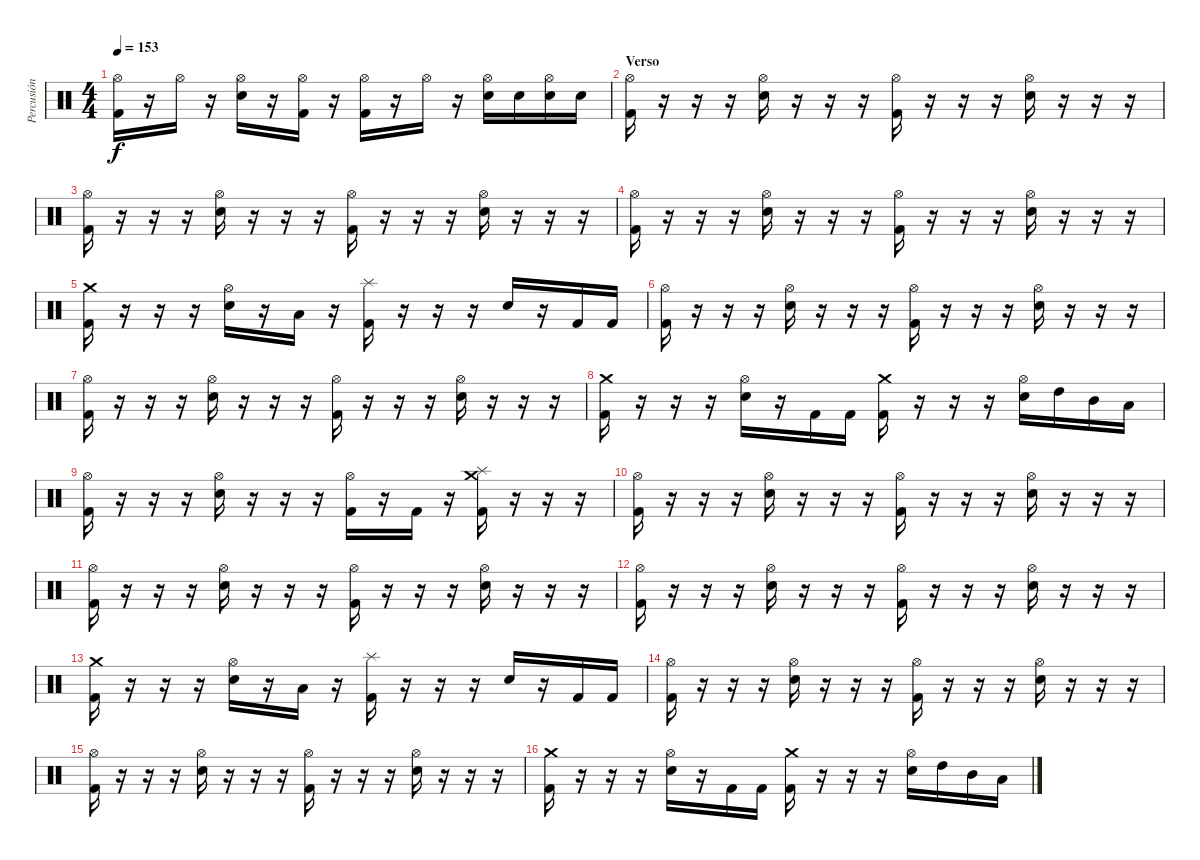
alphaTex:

\track ("Percusión" "Percusión") {instrument percussion}
\staff {score}
\articulation defaults
\ts (4 4)
\tempo 153
\clef neutral
\ks c
("Kick (hit) 2" "Hi-Hat (open)").16{dy f} r.16 "Hi-Hat (open)".16 r.16 ("Electric Snare (hit)" "Hi-Hat (open)").16 r.16 ("Kick (hit) 2" "Hi-Hat (open)").16 r.16 ("Kick (hit) 2" "Hi-Hat (open)").16 r.16 "Hi-Hat (open)".16 r.16 ("Electric Snare (hit)" "Hi-Hat (open)").16 "Electric Snare (hit)".16 ("Electric Snare (hit)" "Hi-Hat (open)").16 "Electric Snare (hit)".16 |
\section ("" "Verso")
("Kick (hit) 2" "Hi-Hat (open)").16 r.16 r.16 r.16 ("Electric Snare (hit)" "Hi-Hat (open)").16 r.16 r.16 r.16 ("Kick (hit) 2" "Hi-Hat (open)").16 r.16 r.16 r.16 ("Electric Snare (hit)" "Hi-Hat (open)").16 r.16 r.16 r.16 |
("Kick (hit) 2" "Hi-Hat (open)").16 r.16 r.16 r.16 ("Electric Snare (hit)" "Hi-Hat (open)").16 r.16 r.16 r.16 ("Kick (hit) 2" "Hi-Hat (open)").16 r.16 r.16 r.16 ("Electric Snare (hit)" "Hi-Hat (open)").16 r.16 r.16 r.16 |
("Kick (hit) 2" "Hi-Hat (open)").16 r.16 r.16 r.16 ("Electric Snare (hit)" "Hi-Hat (open)").16 r.16 r.16 r.16 ("Kick (hit) 2" "Hi-Hat (open)").16 r.16 r.16 r.16 ("Electric Snare (hit)" "Hi-Hat (open)").16 r.16 r.16 r.16 |
("Kick (hit) 2" "Crash medium (hit)").16 r.16 r.16 r.16 ("Electric Snare (hit)" "Hi-Hat (open)").16 r.16 "Low Tom (hit)".16 r.16 ("Kick (hit) 2" "Splash (hit)").16 r.16 r.16 r.16 "Electric Snare (hit)".16 r.16 "Kick (hit) 2".16 "Kick (hit) 2".16 |
("Kick (hit) 2" "Hi-Hat (open)").16 r.16 r.16 r.16 ("Electric Snare (hit)" "Hi-Hat (open)").16 r.16 r.16 r.16 ("Kick (hit) 2" "Hi-Hat (open)").16 r.16 r.16 r.16 ("Electric Snare (hit)" "Hi-Hat (open)").16 r.16 r.16 r.16 |
("Kick (hit) 2" "Hi-Hat (open)").16 r.16 r.16 r.16 ("Electric Snare (hit)" "Hi-Hat (open)").16 r.16 r.16 r.16 ("Kick (hit) 2" "Hi-Hat (open)").16 r.16 r.16 r.16 ("Electric Snare (hit)" "Hi-Hat (open)").16 r.16 r.16 r.16 |
("Kick (hit) 2" "Crash medium (hit)").16 r.16 r.16 r.16 ("Electric Snare (hit)" "Hi-Hat (open)").16 r.16 "Kick (hit) 2".16 "Kick (hit) 2".16 ("Kick (hit) 2" "Crash medium (hit)").16 r.16 r.16 r.16 ("Electric Snare (hit)" "Hi-Hat (open)").16 "High Tom (hit)".16 "Mid Tom (hit)".16 "Low Tom (hit)".16 |
("Kick (hit) 2" "Hi-Hat (open)").16 r.16 r.16 r.16 ("Electric Snare (hit)" "Hi-Hat (open)").16 r.16 r.16 r.16 ("Kick (hit) 2" "Hi-Hat (open)").16 r.16 "Kick (hit) 2".16 r.16 ("Kick (hit) 2" "Splash (hit)" "Crash medium (hit)").16 r.16 r.16 r.16 |
("Kick (hit) 2" "Hi-Hat (open)").16 r.16 r.16 r.16 ("Electric Snare (hit)" "Hi-Hat (open)").16 r.16 r.16 r.16 ("Kick (hit) 2" "Hi-Hat (open)").16 r.16 r.16 r.16 ("Electric Snare (hit)" "Hi-Hat (open)").16 r.16 r.16 r.16 |
("Kick (hit) 2" "Hi-Hat (open)").16 r.16 r.16 r.16 ("Electric Snare (hit)" "Hi-Hat (open)").16 r.16 r.16 r.16 ("Kick (hit) 2" "Hi-Hat (open)").16 r.16 r.16 r.16 ("Electric Snare (hit)" "Hi-Hat (open)").16 r.16 r.16 r.16 |
("Kick (hit) 2" "Hi-Hat (open)").16 r.16 r.16 r.16 ("Electric Snare (hit)" "Hi-Hat (open)").16 r.16 r.16 r.16 ("Kick (hit) 2" "Hi-Hat (open)").16 r.16 r.16 r.16 ("Electric Snare (hit)" "Hi-Hat (open)").16 r.16 r.16 r.16 |
("Kick (hit) 2" "Crash medium (hit)").16 r.16 r.16 r.16 ("Electric Snare (hit)" "Hi-Hat (open)").16 r.16 "Low Tom (hit)".16 r.16 ("Kick (hit) 2" "Splash (hit)").16 r.16 r.16 r.16 "Electric Snare (hit)".16 r.16 "Kick (hit) 2".16 "Kick (hit) 2".16 |
("Kick (hit) 2" "Hi-Hat (open)").16 r.16 r.16 r.16 ("Electric Snare (hit)" "Hi-Hat (open)").16 r.16 r.16 r.16 ("Kick (hit) 2" "Hi-Hat (open)").16 r.16 r.16 r.16 ("Electric Snare (hit)" "Hi-Hat (open)").16 r.16 r.16 r.16 |
("Kick (hit) 2" "Hi-Hat (open)").16 r.16 r.16 r.16 ("Electric Snare (hit)" "Hi-Hat (open)").16 r.16 r.16 r.16 ("Kick (hit) 2" "Hi-Hat (open)").16 r.16 r.16 r.16 ("Electric Snare (hit)" "Hi-Hat (open)").16 r.16 r.16 r.16 |
("Kick (hit) 2" "Crash medium (hit)").16 r.16 r.16 r.16 ("Electric Snare (hit)" "Hi-Hat (open)").16 r.16 "Kick (hit) 2".16 "Kick (hit) 2".16 ("Kick (hit) 2" "Crash medium (hit)").16 r.16 r.16 r.16 ("Electric Snare (hit)" "Hi-Hat (open)").16 "High Tom (hit)".16 "Mid Tom (hit)".16 "Low Tom (hit)".16
